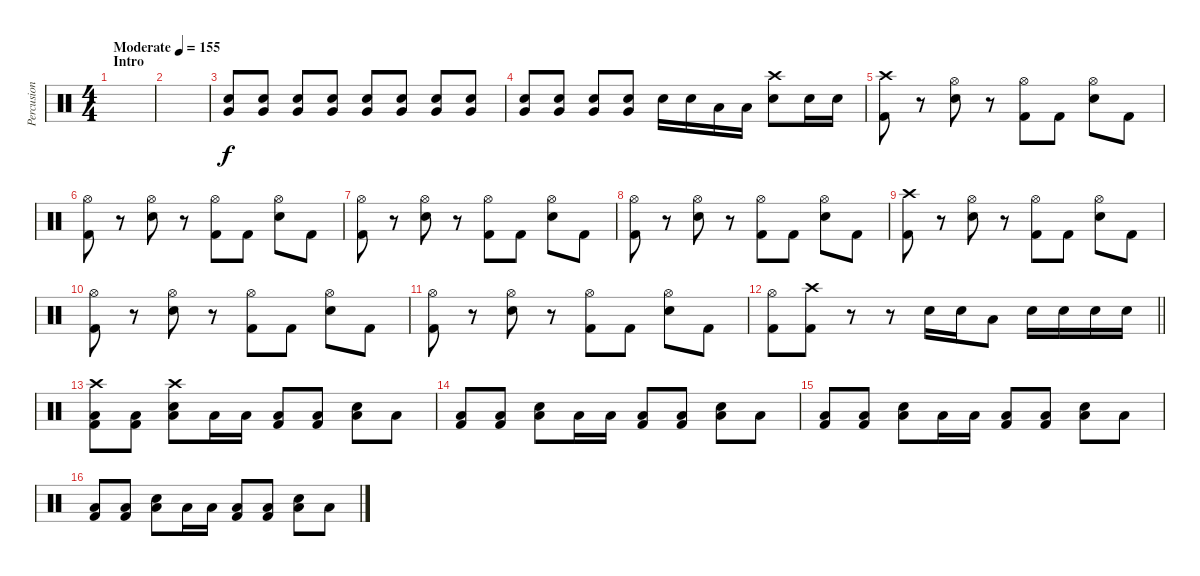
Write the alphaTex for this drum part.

\track ("Percusion" "Percusion") {instrument percussion}
\staff {score}
\articulation defaults
\ts (4 4)
\section ("" "Intro")
\tempo (155 "Moderate")
\clef neutral
\ks c
|
|
("Very Low Tom (hit)" "Electric Snare (hit)").8 ("Very Low Tom (hit)" "Electric Snare (hit)").8 ("Very Low Tom (hit)" "Electric Snare (hit)").8 ("Very Low Tom (hit)" "Electric Snare (hit)").8 ("Very Low Tom (hit)" "Electric Snare (hit)").8 ("Very Low Tom (hit)" "Electric Snare (hit)").8 ("Very Low Tom (hit)" "Electric Snare (hit)").8 ("Very Low Tom (hit)" "Electric Snare (hit)").8 |
("Very Low Tom (hit)" "Electric Snare (hit)").8 ("Very Low Tom (hit)" "Electric Snare (hit)").8 ("Very Low Tom (hit)" "Electric Snare (hit)").8 ("Very Low Tom (hit)" "Electric Snare (hit)").8 "Electric Snare (hit)".16 "Electric Snare (hit)".16 "Low Tom (hit)".16 "Low Tom (hit)".16 ("Crash high (hit)" "Electric Snare (hit)").8 "Electric Snare (hit)".16 "Electric Snare (hit)".16 |
("Crash high (hit)" "Kick (hit) 2").8 r.8 ("Hi-Hat (open)" "Electric Snare (hit)").8 r.8 ("Hi-Hat (open)" "Kick (hit) 2").8 "Kick (hit) 2".8 ("Hi-Hat (open)" "Electric Snare (hit)").8 "Kick (hit) 2".8 |
("Hi-Hat (open)" "Kick (hit) 2").8 r.8 ("Hi-Hat (open)" "Electric Snare (hit)").8 r.8 ("Hi-Hat (open)" "Kick (hit) 2").8 "Kick (hit) 2".8 ("Hi-Hat (open)" "Electric Snare (hit)").8 "Kick (hit) 2".8 |
("Hi-Hat (open)" "Kick (hit) 2").8 r.8 ("Hi-Hat (open)" "Electric Snare (hit)").8 r.8 ("Hi-Hat (open)" "Kick (hit) 2").8 "Kick (hit) 2".8 ("Hi-Hat (open)" "Electric Snare (hit)").8 "Kick (hit) 2".8 |
("Hi-Hat (open)" "Kick (hit) 2").8 r.8 ("Hi-Hat (open)" "Electric Snare (hit)").8 r.8 ("Hi-Hat (open)" "Kick (hit) 2").8 "Kick (hit) 2".8 ("Hi-Hat (open)" "Electric Snare (hit)").8 "Kick (hit) 2".8 |
("Crash high (hit)" "Kick (hit) 2").8 r.8 ("Hi-Hat (open)" "Electric Snare (hit)").8 r.8 ("Hi-Hat (open)" "Kick (hit) 2").8 "Kick (hit) 2".8 ("Hi-Hat (open)" "Electric Snare (hit)").8 "Kick (hit) 2".8 |
("Hi-Hat (open)" "Kick (hit) 2").8 r.8 ("Hi-Hat (open)" "Electric Snare (hit)").8 r.8 ("Hi-Hat (open)" "Kick (hit) 2").8 "Kick (hit) 2".8 ("Hi-Hat (open)" "Electric Snare (hit)").8 "Kick (hit) 2".8 |
("Hi-Hat (open)" "Kick (hit) 2").8 r.8 ("Hi-Hat (open)" "Electric Snare (hit)").8 r.8 ("Hi-Hat (open)" "Kick (hit) 2").8 "Kick (hit) 2".8 ("Hi-Hat (open)" "Electric Snare (hit)").8 "Kick (hit) 2".8 |
\barLineRight lightlight
("Hi-Hat (open)" "Kick (hit) 2").8 ("Crash high (hit)" "Kick (hit) 2").8 r.8 r.8 "Electric Snare (hit)".16 "Electric Snare (hit)".16 "Low Tom (hit)".8 "Electric Snare (hit)".16 "Electric Snare (hit)".16 "Electric Snare (hit)".16 "Electric Snare (hit)".16 |
\section ("" "")
("Crash high (hit)" "Low Floor Tom (hit)" "Kick (hit) 2").8 ("Low Floor Tom (hit)" "Kick (hit) 2").8 ("Crash high (hit)" "Low Floor Tom (hit)" "Electric Snare (hit)").8 "Low Floor Tom (hit)".16 "Low Floor Tom (hit)".16 ("Low Floor Tom (hit)" "Kick (hit) 2").8 ("Low Floor Tom (hit)" "Kick (hit) 2").8 ("Low Floor Tom (hit)" "Electric Snare (hit)").8 "Low Floor Tom (hit)".8 |
("Low Floor Tom (hit)" "Kick (hit) 2").8 ("Low Floor Tom (hit)" "Kick (hit) 2").8 ("Low Floor Tom (hit)" "Electric Snare (hit)").8 "Low Floor Tom (hit)".16 "Low Floor Tom (hit)".16 ("Low Floor Tom (hit)" "Kick (hit) 2").8 ("Low Floor Tom (hit)" "Kick (hit) 2").8 ("Low Floor Tom (hit)" "Electric Snare (hit)").8 "Low Floor Tom (hit)".8 |
("Low Floor Tom (hit)" "Kick (hit) 2").8 ("Low Floor Tom (hit)" "Kick (hit) 2").8 ("Low Floor Tom (hit)" "Electric Snare (hit)").8 "Low Floor Tom (hit)".16 "Low Floor Tom (hit)".16 ("Low Floor Tom (hit)" "Kick (hit) 2").8 ("Low Floor Tom (hit)" "Kick (hit) 2").8 ("Low Floor Tom (hit)" "Electric Snare (hit)").8 "Low Floor Tom (hit)".8 |
("Low Floor Tom (hit)" "Kick (hit) 2").8 ("Low Floor Tom (hit)" "Kick (hit) 2").8 ("Low Floor Tom (hit)" "Electric Snare (hit)").8 "Low Floor Tom (hit)".16 "Low Floor Tom (hit)".16 ("Low Floor Tom (hit)" "Kick (hit) 2").8 ("Low Floor Tom (hit)" "Kick (hit) 2").8 ("Low Floor Tom (hit)" "Electric Snare (hit)").8 "Low Floor Tom (hit)".8
